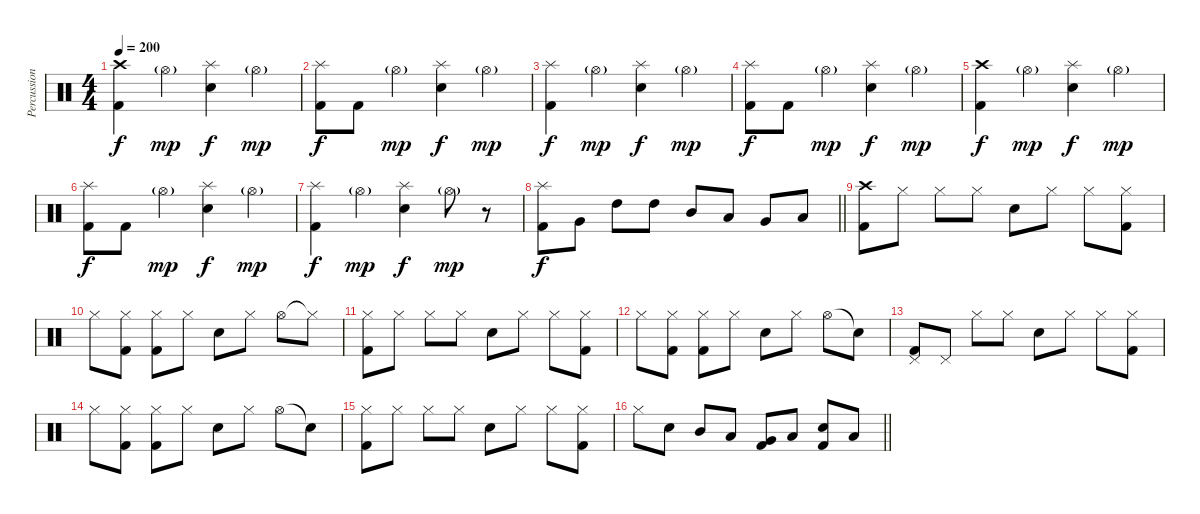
\track ("Percussion" "Percussion") {instrument percussion}
\staff {score}
\articulation defaults
\ts (4 4)
\section ("" "")
\tempo 200
\clef neutral
\ks c
("Crash high (hit)" "Kick (hit) 2").4{dy f} "Hi-Hat (open)"{g}.4{dy mp} ("Splash (hit)" "Electric Snare (hit)").4{dy f} "Hi-Hat (open)"{g}.4{dy mp} |
("Splash (hit)" "Kick (hit) 2").8{dy f} "Kick (hit) 2".8 "Hi-Hat (open)"{g}.4{dy mp} ("Splash (hit)" "Electric Snare (hit)").4{dy f} "Hi-Hat (open)"{g}.4{dy mp} |
("Splash (hit)" "Kick (hit) 2").4{dy f} "Hi-Hat (open)"{g}.4{dy mp} ("Splash (hit)" "Electric Snare (hit)").4{dy f} "Hi-Hat (open)"{g}.4{dy mp} |
("Splash (hit)" "Kick (hit) 2").8{dy f} "Kick (hit) 2".8 "Hi-Hat (open)"{g}.4{dy mp} ("Splash (hit)" "Electric Snare (hit)").4{dy f} "Hi-Hat (open)"{g}.4{dy mp} |
("Crash high (hit)" "Kick (hit) 2").4{dy f} "Hi-Hat (open)"{g}.4{dy mp} ("Splash (hit)" "Electric Snare (hit)").4{dy f} "Hi-Hat (open)"{g}.4{dy mp} |
("Splash (hit)" "Kick (hit) 2").8{dy f} "Kick (hit) 2".8 "Hi-Hat (open)"{g}.4{dy mp} ("Splash (hit)" "Electric Snare (hit)").4{dy f} "Hi-Hat (open)"{g}.4{dy mp} |
("Splash (hit)" "Kick (hit) 2").4{dy f} "Hi-Hat (open)"{g}.4{dy mp} ("Splash (hit)" "Electric Snare (hit)").4{dy f} "Hi-Hat (open)"{g}.8{dy mp} r.8 |
\barLineRight lightlight
("Splash (hit)" "Kick (hit) 2").8{dy f} "Very Low Tom (hit)".8 "High Tom (hit)".8 "High Tom (hit)".8 "Mid Tom (hit)".8 "Low Tom (hit)".8 "Very Low Tom (hit)".8 "Low Floor Tom (hit)".8 |
\section ("" "")
("Crash high (hit)" "Kick (hit) 2").8 "Hi-Hat (closed)".8 "Hi-Hat (closed)".8 "Hi-Hat (closed)".8 "Electric Snare (hit)".8 "Hi-Hat (closed)".8 "Hi-Hat (closed)".8 ("Hi-Hat (closed)" "Kick (hit) 2").8 |
"Hi-Hat (closed)".8 ("Hi-Hat (closed)" "Kick (hit) 2").8 ("Hi-Hat (closed)" "Kick (hit) 2").8 "Hi-Hat (closed)".8 "Electric Snare (hit)".8 "Hi-Hat (closed)".8 "Hi-Hat (open)".8 "Hi-Hat (closed)"{t}.8 |
("Hi-Hat (closed)" "Kick (hit) 2").8 "Hi-Hat (closed)".8 "Hi-Hat (closed)".8 "Hi-Hat (closed)".8 "Electric Snare (hit)".8 "Hi-Hat (closed)".8 "Hi-Hat (closed)".8 ("Hi-Hat (closed)" "Kick (hit) 2").8 |
"Hi-Hat (closed)".8 ("Hi-Hat (closed)" "Kick (hit) 2").8 ("Hi-Hat (closed)" "Kick (hit) 2").8 "Hi-Hat (closed)".8 "Electric Snare (hit)".8 "Hi-Hat (closed)".8 "Hi-Hat (open)".8 "Snare (hit)"{t}.8 |
("Pedal Hi-Hat (hit)" "Kick (hit) 2").8 "Pedal Hi-Hat (hit)".8 "Hi-Hat (closed)".8 "Hi-Hat (closed)".8 "Electric Snare (hit)".8 "Hi-Hat (closed)".8 "Hi-Hat (closed)".8 ("Hi-Hat (closed)" "Kick (hit) 2").8 |
"Hi-Hat (closed)".8 ("Hi-Hat (closed)" "Kick (hit) 2").8 ("Hi-Hat (closed)" "Kick (hit) 2").8 "Hi-Hat (closed)".8 "Electric Snare (hit)".8 "Hi-Hat (closed)".8 "Hi-Hat (open)".8 "Snare (hit)"{t}.8 |
("Hi-Hat (closed)" "Kick (hit) 2").8 "Hi-Hat (closed)".8 "Hi-Hat (closed)".8 "Hi-Hat (closed)".8 "Electric Snare (hit)".8 "Hi-Hat (closed)".8 "Hi-Hat (closed)".8 ("Hi-Hat (closed)" "Kick (hit) 2").8 |
\barLineRight lightlight "Hi-Hat (closed)".8 "Electric Snare (hit)".8 "Mid Tom (hit)".8 "Low Tom (hit)".8
("Very Low Tom (hit)" "Kick (hit) 2").8 "Low Floor Tom (hit)".8 ("Electric Snare (hit)" "Kick (hit) 2").8 "Low Floor Tom (hit)".8
